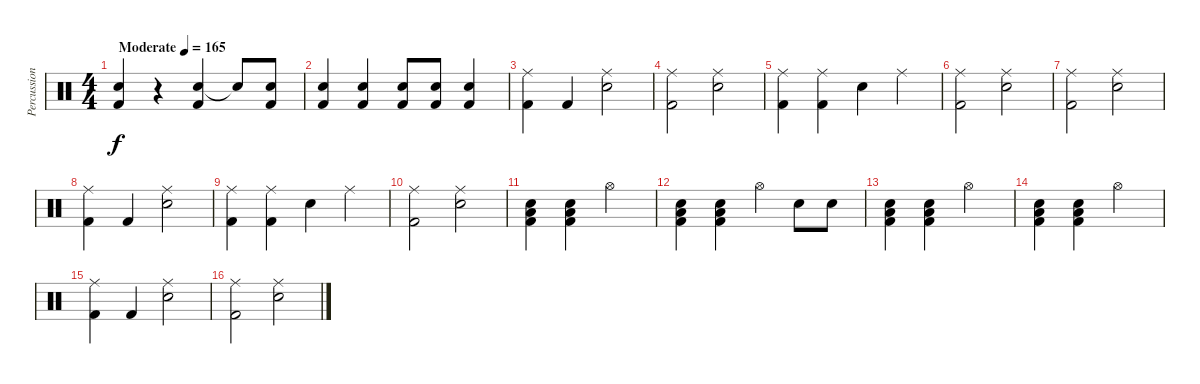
\track ("Percussion" "Percussion") {instrument percussion}
\staff {score}
\articulation defaults
\ts (4 4)
\tempo (165 "Moderate")
\clef neutral
\ks c
("Snare (hit) 2" "Kick (hit) 2").4{dy f} r.4 ("Snare (hit) 2" "Kick (hit) 2").4 "Snare (hit) 2"{t}.8 ("Snare (hit) 2" "Kick (hit) 2").8 |
("Snare (hit) 2" "Kick (hit) 2").4 ("Snare (hit) 2" "Kick (hit) 2").4 ("Snare (hit) 2" "Kick (hit) 2").8 ("Snare (hit) 2" "Kick (hit) 2").8 ("Snare (hit) 2" "Kick (hit) 2").4 |
("Ride (middle)" "Kick (hit) 2").4 "Kick (hit) 2".4 ("Ride (middle)" "Snare (hit) 2").2 |
("Ride (middle)" "Kick (hit) 2").2 ("Ride (middle)" "Snare (hit) 2").2 |
("Ride (middle)" "Kick (hit) 2").4 ("Ride (middle)" "Kick (hit) 2").4 "Snare (hit) 2".4 "Ride (middle)".4 |
("Ride (middle)" "Kick (hit) 2").2 ("Ride (middle)" "Snare (hit) 2").2 |
("Ride (middle)" "Kick (hit) 2").2 ("Ride (middle)" "Snare (hit) 2").2 |
("Ride (middle)" "Kick (hit) 2").4 "Kick (hit) 2".4 ("Ride (middle)" "Snare (hit) 2").2 |
("Ride (middle)" "Kick (hit) 2").4 ("Ride (middle)" "Kick (hit) 2").4 "Snare (hit) 2".4 "Ride (middle)".4 |
("Ride (middle)" "Kick (hit) 2").2 ("Ride (middle)" "Snare (hit) 2").2 |
("Snare (hit) 2" "Low Tom (hit)" "Kick (hit) 2").4 ("Snare (hit) 2" "Low Tom (hit)" "Kick (hit) 2").4 "Hi-Hat (open)".2 |
("Snare (hit) 2" "Low Tom (hit)" "Kick (hit) 2").4 ("Snare (hit) 2" "Low Tom (hit)" "Kick (hit) 2").4 "Hi-Hat (open)".4 "Snare (hit) 2".8 "Snare (hit) 2".8 |
("Snare (hit) 2" "Low Tom (hit)" "Kick (hit) 2").4 ("Snare (hit) 2" "Low Tom (hit)" "Kick (hit) 2").4 "Hi-Hat (open)".2 |
("Snare (hit) 2" "Low Tom (hit)" "Kick (hit) 2").4 ("Snare (hit) 2" "Low Tom (hit)" "Kick (hit) 2").4 "Hi-Hat (open)".2 |
("Ride (middle)" "Kick (hit) 2").4 "Kick (hit) 2".4 ("Ride (middle)" "Snare (hit) 2").2 |
("Ride (middle)" "Kick (hit) 2").2 ("Ride (middle)" "Snare (hit) 2").2
